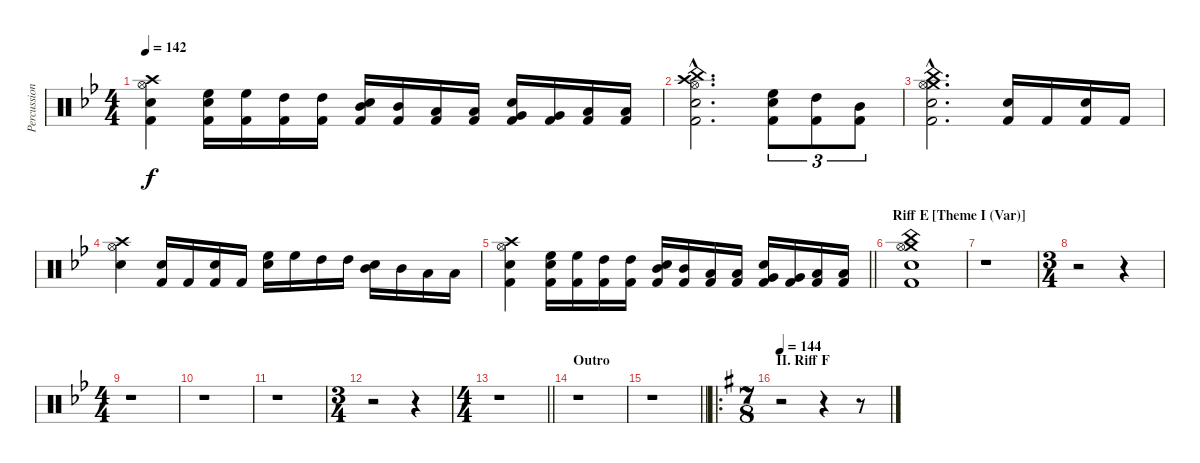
\track ("Percussion" "Percussion") {instrument percussion}
\staff {score}
\articulation defaults
\ts (4 4)
\tempo 142
\clef neutral
\ks gminor
("Crash high (hit)" "Hi-Hat (open)" "Snare (hit) 2" "Kick (hit) 2").4{dy f} ("High Floor Tom (hit)" "Snare (hit) 2" "Kick (hit) 2").16 ("High Floor Tom (hit)" "Kick (hit) 2").16 ("High Tom (hit)" "Kick (hit) 2").16 ("High Tom (hit)" "Kick (hit) 2").16 ("Mid Tom (hit)" "Snare (hit) 2" "Kick (hit) 2").16 ("Mid Tom (hit)" "Kick (hit) 2").16 ("Low Tom (hit)" "Kick (hit) 2").16 ("Low Tom (hit)" "Kick (hit) 2").16 ("Snare (hit) 2" "Very Low Tom (hit)" "Kick (hit) 2").16 ("Very Low Tom (hit)" "Kick (hit) 2").16 ("Low Floor Tom (hit)" "Kick (hit) 2").16 ("Low Floor Tom (hit)" "Kick (hit) 2").16 |
("Crash high (hit)"{hac} "China (hit)"{hac} "Hi-Hat (open)"{hac} "Snare (hit) 2"{hac} "Kick (hit) 2"{hac}).2{d} ("High Floor Tom (hit)" "Snare (hit) 2" "Kick (hit) 2").8{tu (3 2)} ("High Tom (hit)" "Kick (hit) 2").8{tu (3 2)} ("Mid Tom (hit)" "Kick (hit) 2").8{tu (3 2)} |
("Crash medium (hit)"{hac} "China (hit)"{hac} "Hi-Hat (open)"{hac} "Snare (hit) 2"{hac} "Kick (hit) 2"{hac}).2{d} ("Snare (hit) 2" "Kick (hit) 2").16 "Kick (hit) 2".16 ("Snare (hit) 2" "Kick (hit) 2").16 "Kick (hit) 2".16 |
("Crash high (hit)" "Hi-Hat (open)" "Snare (hit) 2").4 ("Snare (hit) 2" "Kick (hit) 2").16 "Kick (hit) 2".16 ("Snare (hit) 2" "Kick (hit) 2").16 "Kick (hit) 2".16 ("High Floor Tom (hit)" "Snare (hit) 2").16 "High Floor Tom (hit)".16 "High Tom (hit)".16 "High Tom (hit)".16 ("Mid Tom (hit)" "Snare (hit) 2").16 "Mid Tom (hit)".16 "Low Tom (hit)".16 "Low Tom (hit)".16 |
\barLineRight lightlight
("Crash high (hit)" "Hi-Hat (open)" "Snare (hit) 2" "Kick (hit) 2").4 ("High Floor Tom (hit)" "Snare (hit) 2" "Kick (hit) 2").16 ("High Floor Tom (hit)" "Kick (hit) 2").16 ("High Tom (hit)" "Kick (hit) 2").16 ("High Tom (hit)" "Kick (hit) 2").16 ("Mid Tom (hit)" "Snare (hit) 2" "Kick (hit) 2").16 ("Mid Tom (hit)" "Kick (hit) 2").16 ("Low Tom (hit)" "Kick (hit) 2").16 ("Low Tom (hit)" "Kick (hit) 2").16 ("Snare (hit) 2" "Very Low Tom (hit)" "Kick (hit) 2").16 ("Very Low Tom (hit)" "Kick (hit) 2").16 ("Low Floor Tom (hit)" "Kick (hit) 2").16 ("Low Floor Tom (hit)" "Kick (hit) 2").16 |
\section ("" " Riff E [Theme I (Var)]")
("Crash medium (hit)" "China (hit)" "Hi-Hat (open)" "Snare (hit) 2" "Kick (hit) 2").1 |
r.1 |
\ts (3 4)
r.2 r.4 |
\ts (4 4)
r.1 |
r.1 |
r.1 |
\ts (3 4)
r.2 r.4 |
\ts (4 4)
\barLineRight lightlight
r.1 |
\section ("" "Outro")
r.1 |
\barLineRight lightlight
r.1 |
\ro
\ts (7 8)
\section ("" "II. Riff F")
\tempo 144
\ks eminor
r.2 r.4 r.8
